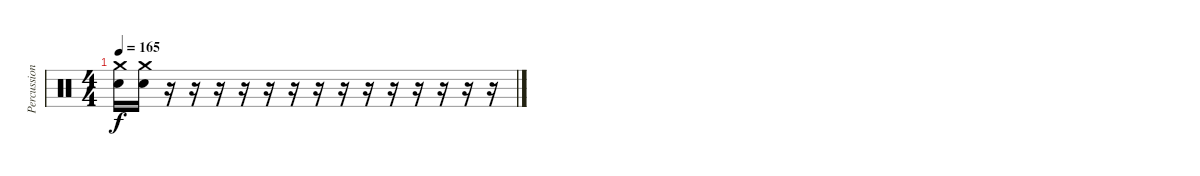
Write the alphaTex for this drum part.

\track ("Percussions" "Percussion") {instrument percussion}
\staff {score}
\articulation defaults
\ts (4 4)
\tempo 165
\clef neutral
\ks c
("Crash medium (hit)" "Snare (hit) 2").16{dy f} ("Crash medium (hit)" "Snare (hit) 2").16 r.16 r.16 r.16 r.16 r.16 r.16 r.16 r.16 r.16 r.16 r.16 r.16 r.16 r.16
